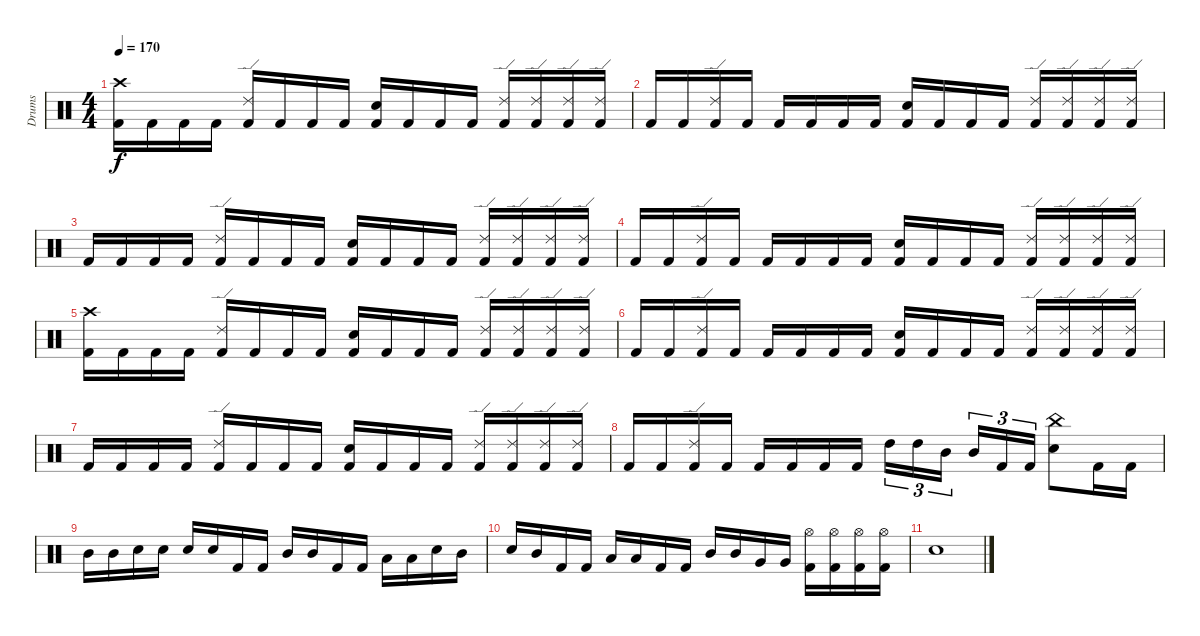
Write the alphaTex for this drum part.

\track ("Drums" "Drums") {instrument percussion}
\staff {score}
\articulation defaults
\ts (4 4)
\tempo 170
\clef neutral
\ks c
("Kick (hit) 2" "Crash high (hit)").16{dy f} "Kick (hit) 2".16 "Kick (hit) 2".16 "Kick (hit) 2".16 ("Kick (hit) 2" "Ride (edge) 2").16 "Kick (hit) 2".16 "Kick (hit) 2".16 "Kick (hit) 2".16 ("Kick (hit) 2" "Electric Snare (hit)").16 "Kick (hit) 2".16 "Kick (hit) 2".16 "Kick (hit) 2".16 ("Kick (hit) 2" "Ride (edge) 2").16 ("Kick (hit) 2" "Ride (edge) 2").16 ("Kick (hit) 2" "Ride (edge) 2").16 ("Kick (hit) 2" "Ride (edge) 2").16 |
"Kick (hit) 2".16 "Kick (hit) 2".16 ("Kick (hit) 2" "Ride (edge) 2").16 "Kick (hit) 2".16 "Kick (hit) 2".16 "Kick (hit) 2".16 "Kick (hit) 2".16 "Kick (hit) 2".16 ("Kick (hit) 2" "Electric Snare (hit)").16 "Kick (hit) 2".16 "Kick (hit) 2".16 "Kick (hit) 2".16 ("Kick (hit) 2" "Ride (edge) 2").16 ("Kick (hit) 2" "Ride (edge) 2").16 ("Kick (hit) 2" "Ride (edge) 2").16 ("Kick (hit) 2" "Ride (edge) 2").16 |
"Kick (hit) 2".16 "Kick (hit) 2".16 "Kick (hit) 2".16 "Kick (hit) 2".16 ("Kick (hit) 2" "Ride (edge) 2").16 "Kick (hit) 2".16 "Kick (hit) 2".16 "Kick (hit) 2".16 ("Kick (hit) 2" "Electric Snare (hit)").16 "Kick (hit) 2".16 "Kick (hit) 2".16 "Kick (hit) 2".16 ("Kick (hit) 2" "Ride (edge) 2").16 ("Kick (hit) 2" "Ride (edge) 2").16 ("Kick (hit) 2" "Ride (edge) 2").16 ("Kick (hit) 2" "Ride (edge) 2").16 |
"Kick (hit) 2".16 "Kick (hit) 2".16 ("Kick (hit) 2" "Ride (edge) 2").16 "Kick (hit) 2".16 "Kick (hit) 2".16 "Kick (hit) 2".16 "Kick (hit) 2".16 "Kick (hit) 2".16 ("Kick (hit) 2" "Electric Snare (hit)").16 "Kick (hit) 2".16 "Kick (hit) 2".16 "Kick (hit) 2".16 ("Kick (hit) 2" "Ride (edge) 2").16 ("Kick (hit) 2" "Ride (edge) 2").16 ("Kick (hit) 2" "Ride (edge) 2").16 ("Kick (hit) 2" "Ride (edge) 2").16 |
("Kick (hit) 2" "Crash high (hit)").16 "Kick (hit) 2".16 "Kick (hit) 2".16 "Kick (hit) 2".16 ("Kick (hit) 2" "Ride (edge) 2").16 "Kick (hit) 2".16 "Kick (hit) 2".16 "Kick (hit) 2".16 ("Kick (hit) 2" "Electric Snare (hit)").16 "Kick (hit) 2".16 "Kick (hit) 2".16 "Kick (hit) 2".16 ("Kick (hit) 2" "Ride (edge) 2").16 ("Kick (hit) 2" "Ride (edge) 2").16 ("Kick (hit) 2" "Ride (edge) 2").16 ("Kick (hit) 2" "Ride (edge) 2").16 |
"Kick (hit) 2".16 "Kick (hit) 2".16 ("Kick (hit) 2" "Ride (edge) 2").16 "Kick (hit) 2".16 "Kick (hit) 2".16 "Kick (hit) 2".16 "Kick (hit) 2".16 "Kick (hit) 2".16 ("Kick (hit) 2" "Electric Snare (hit)").16 "Kick (hit) 2".16 "Kick (hit) 2".16 "Kick (hit) 2".16 ("Kick (hit) 2" "Ride (edge) 2").16 ("Kick (hit) 2" "Ride (edge) 2").16 ("Kick (hit) 2" "Ride (edge) 2").16 ("Kick (hit) 2" "Ride (edge) 2").16 |
"Kick (hit) 2".16 "Kick (hit) 2".16 "Kick (hit) 2".16 "Kick (hit) 2".16 ("Kick (hit) 2" "Ride (edge) 2").16 "Kick (hit) 2".16 "Kick (hit) 2".16 "Kick (hit) 2".16 ("Kick (hit) 2" "Electric Snare (hit)").16 "Kick (hit) 2".16 "Kick (hit) 2".16 "Kick (hit) 2".16 ("Kick (hit) 2" "Ride (edge) 2").16 ("Kick (hit) 2" "Ride (edge) 2").16 ("Kick (hit) 2" "Ride (edge) 2").16 ("Kick (hit) 2" "Ride (edge) 2").16 |
"Kick (hit) 2".16 "Kick (hit) 2".16 ("Kick (hit) 2" "Ride (edge) 2").16 "Kick (hit) 2".16 "Kick (hit) 2".16 "Kick (hit) 2".16 "Kick (hit) 2".16 "Kick (hit) 2".16 "High Tom (hit)".16{tu (3 2)} "High Tom (hit)".16{tu (3 2)} "Mid Tom (hit)".16{tu (3 2)} "Mid Tom (hit)".16{tu (3 2)} "Kick (hit) 2".16{tu (3 2)} "Kick (hit) 2".16{tu (3 2)} ("Electric Snare (hit)" "China (hit)").8 "Kick (hit) 2".16 "Kick (hit) 2".16 |
"Mid Tom (hit)".16 "Mid Tom (hit)".16 "Electric Snare (hit)".16 "Electric Snare (hit)".16 "Electric Snare (hit)".16 "Electric Snare (hit)".16 "Kick (hit) 2".16 "Kick (hit) 2".16 "Mid Tom (hit)".16 "Mid Tom (hit)".16 "Kick (hit) 2".16 "Kick (hit) 2".16 "Low Tom (hit)".16 "Low Tom (hit)".16 "Electric Snare (hit)".16 "Mid Tom (hit)".16 |
"Electric Snare (hit)".16 "Mid Tom (hit)".16 "Kick (hit) 2".16 "Kick (hit) 2".16 "Low Tom (hit)".16 "Low Tom (hit)".16 "Kick (hit) 2".16 "Kick (hit) 2".16 "Mid Tom (hit)".16 "Mid Tom (hit)".16 "Very Low Tom (hit)".16 "Very Low Tom (hit)".16 ("Hi-Hat (open)" "Kick (hit) 2").16 ("Hi-Hat (open)" "Kick (hit) 2").16 ("Hi-Hat (open)" "Kick (hit) 2").16 ("Hi-Hat (open)" "Kick (hit) 2").16 |
"Electric Snare (hit)".1
